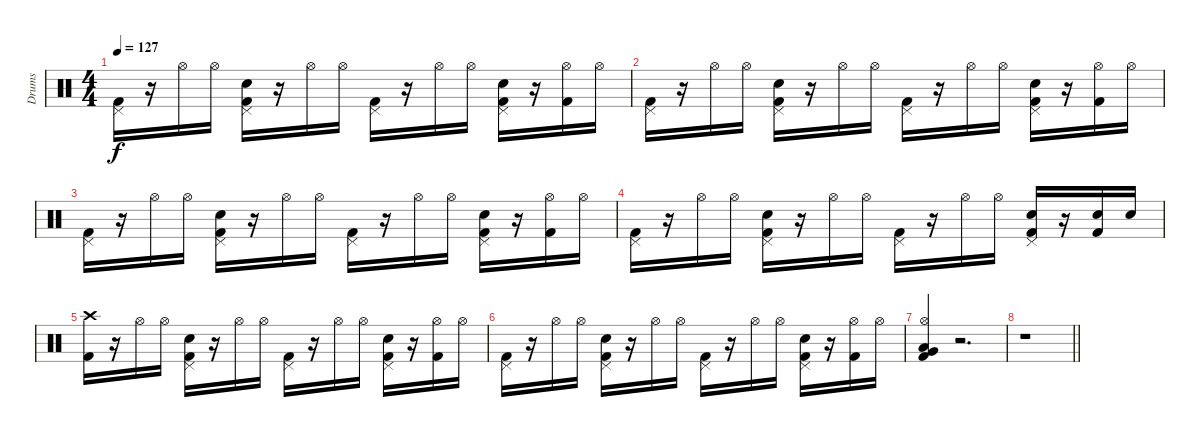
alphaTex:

\track ("Drums" "Drums") {instrument percussion}
\staff {score}
\articulation defaults
\ts (4 4)
\tempo 127
\clef neutral
\ks c
("Pedal Hi-Hat (hit)" "Kick (hit) 2").16{dy f} r.16 "Hi-Hat (open)".16 "Hi-Hat (open)".16 ("Pedal Hi-Hat (hit)" "Snare (hit) 2" "Kick (hit) 2").16 r.16 "Hi-Hat (open)".16 "Hi-Hat (open)".16 ("Pedal Hi-Hat (hit)" "Kick (hit) 2").16 r.16 "Hi-Hat (open)".16 "Hi-Hat (open)".16 ("Pedal Hi-Hat (hit)" "Snare (hit) 2" "Kick (hit) 2").16 r.16 ("Hi-Hat (open)" "Kick (hit) 2").16 "Hi-Hat (open)".16 |
("Pedal Hi-Hat (hit)" "Kick (hit) 2").16 r.16 "Hi-Hat (open)".16 "Hi-Hat (open)".16 ("Pedal Hi-Hat (hit)" "Snare (hit) 2" "Kick (hit) 2").16 r.16 "Hi-Hat (open)".16 "Hi-Hat (open)".16 ("Pedal Hi-Hat (hit)" "Kick (hit) 2").16 r.16 "Hi-Hat (open)".16 "Hi-Hat (open)".16 ("Pedal Hi-Hat (hit)" "Snare (hit) 2" "Kick (hit) 2").16 r.16 ("Hi-Hat (open)" "Kick (hit) 2").16 "Hi-Hat (open)".16 |
("Pedal Hi-Hat (hit)" "Kick (hit) 2").16 r.16 "Hi-Hat (open)".16 "Hi-Hat (open)".16 ("Pedal Hi-Hat (hit)" "Snare (hit) 2" "Kick (hit) 2").16 r.16 "Hi-Hat (open)".16 "Hi-Hat (open)".16 ("Pedal Hi-Hat (hit)" "Kick (hit) 2").16 r.16 "Hi-Hat (open)".16 "Hi-Hat (open)".16 ("Pedal Hi-Hat (hit)" "Snare (hit) 2" "Kick (hit) 2").16 r.16 ("Hi-Hat (open)" "Kick (hit) 2").16 "Hi-Hat (open)".16 |
("Pedal Hi-Hat (hit)" "Kick (hit) 2").16 r.16 "Hi-Hat (open)".16 "Hi-Hat (open)".16 ("Pedal Hi-Hat (hit)" "Snare (hit) 2" "Kick (hit) 2").16 r.16 "Hi-Hat (open)".16 "Hi-Hat (open)".16 ("Pedal Hi-Hat (hit)" "Kick (hit) 2").16 r.16 "Hi-Hat (open)".16 "Hi-Hat (open)".16 ("Pedal Hi-Hat (hit)" "Snare (hit) 2" "Kick (hit) 2").16 r.16 ("Snare (hit) 2" "Kick (hit) 2").16 "Snare (hit) 2".16 |
("Crash high (hit)" "Kick (hit) 2").16 r.16 "Hi-Hat (open)".16 "Hi-Hat (open)".16 ("Pedal Hi-Hat (hit)" "Snare (hit) 2" "Kick (hit) 2").16 r.16 "Hi-Hat (open)".16 "Hi-Hat (open)".16 ("Pedal Hi-Hat (hit)" "Kick (hit) 2").16 r.16 "Hi-Hat (open)".16 "Hi-Hat (open)".16 ("Pedal Hi-Hat (hit)" "Snare (hit) 2" "Kick (hit) 2").16 r.16 ("Hi-Hat (open)" "Kick (hit) 2").16 "Hi-Hat (open)".16 |
("Pedal Hi-Hat (hit)" "Kick (hit) 2").16 r.16 "Hi-Hat (open)".16 "Hi-Hat (open)".16 ("Pedal Hi-Hat (hit)" "Snare (hit) 2" "Kick (hit) 2").16 r.16 "Hi-Hat (open)".16 "Hi-Hat (open)".16 ("Pedal Hi-Hat (hit)" "Kick (hit) 2").16 r.16 "Hi-Hat (open)".16 "Hi-Hat (open)".16 ("Pedal Hi-Hat (hit)" "Snare (hit) 2" "Kick (hit) 2").16 r.16 ("Hi-Hat (open)" "Kick (hit) 2").16 "Hi-Hat (open)".16 |
("Hi-Hat (open)" "Low Tom (hit)" "Very Low Tom (hit)" "Kick (hit) 2").4 r.2{d} |
\barLineRight lightlight
r.1
